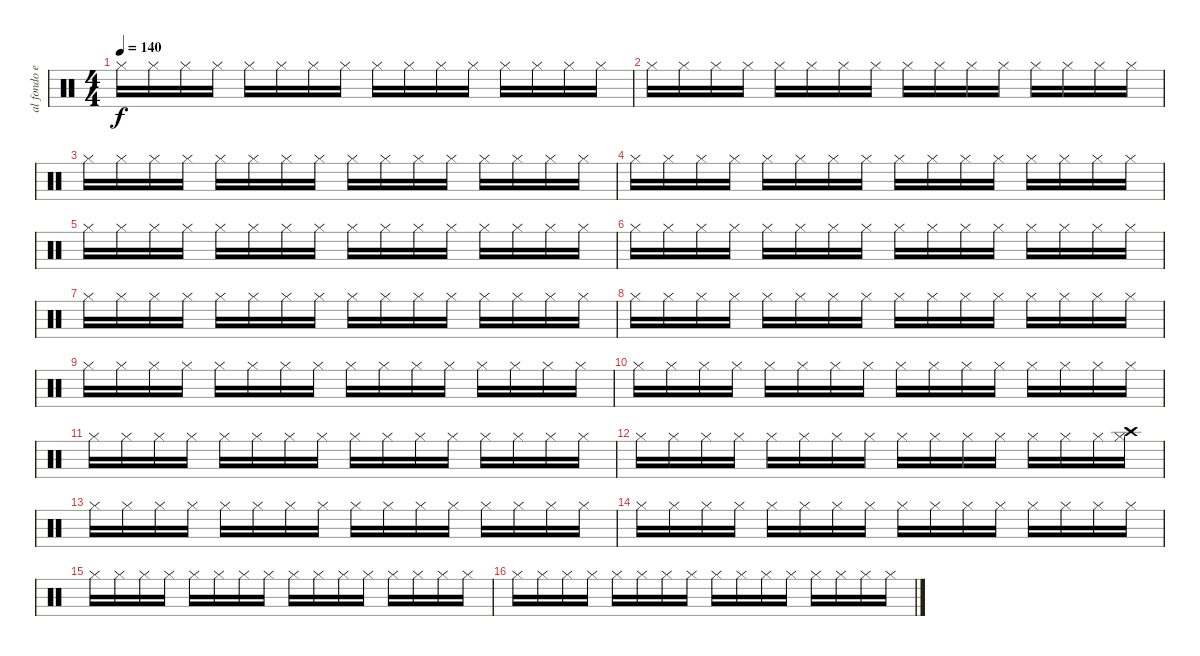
\track ("al fondo en la bateria Mr Pedro Andreu" "al fondo e") {instrument percussion}
\staff {score}
\articulation defaults
\ts (4 4)
\tempo 140
\clef neutral
\ks c "Hi-Hat (closed)".16{dy f} "Hi-Hat (closed)".16 "Hi-Hat (closed)".16 "Hi-Hat (closed)".16 "Hi-Hat (closed)".16 "Hi-Hat (closed)".16 "Hi-Hat (closed)".16 "Hi-Hat (closed)".16 "Hi-Hat (closed)".16 "Hi-Hat (closed)".16 "Hi-Hat (closed)".16 "Hi-Hat (closed)".16 "Hi-Hat (closed)".16 "Hi-Hat (closed)".16 "Hi-Hat (closed)".16 "Hi-Hat (closed)".16
|
"Hi-Hat (closed)".16 "Hi-Hat (closed)".16 "Hi-Hat (closed)".16 "Hi-Hat (closed)".16 "Hi-Hat (closed)".16 "Hi-Hat (closed)".16 "Hi-Hat (closed)".16 "Hi-Hat (closed)".16 "Hi-Hat (closed)".16 "Hi-Hat (closed)".16 "Hi-Hat (closed)".16 "Hi-Hat (closed)".16 "Hi-Hat (closed)".16 "Hi-Hat (closed)".16 "Hi-Hat (closed)".16 "Hi-Hat (closed)".16 |
"Hi-Hat (closed)".16 "Hi-Hat (closed)".16 "Hi-Hat (closed)".16 "Hi-Hat (closed)".16 "Hi-Hat (closed)".16 "Hi-Hat (closed)".16 "Hi-Hat (closed)".16 "Hi-Hat (closed)".16 "Hi-Hat (closed)".16 "Hi-Hat (closed)".16 "Hi-Hat (closed)".16 "Hi-Hat (closed)".16 "Hi-Hat (closed)".16 "Hi-Hat (closed)".16 "Hi-Hat (closed)".16 "Hi-Hat (closed)".16 |
"Hi-Hat (closed)".16 "Hi-Hat (closed)".16 "Hi-Hat (closed)".16 "Hi-Hat (closed)".16 "Hi-Hat (closed)".16 "Hi-Hat (closed)".16 "Hi-Hat (closed)".16 "Hi-Hat (closed)".16 "Hi-Hat (closed)".16 "Hi-Hat (closed)".16 "Hi-Hat (closed)".16 "Hi-Hat (closed)".16 "Hi-Hat (closed)".16 "Hi-Hat (closed)".16 "Hi-Hat (closed)".16 "Hi-Hat (closed)".16 |
"Hi-Hat (closed)".16 "Hi-Hat (closed)".16 "Hi-Hat (closed)".16 "Hi-Hat (closed)".16 "Hi-Hat (closed)".16 "Hi-Hat (closed)".16 "Hi-Hat (closed)".16 "Hi-Hat (closed)".16 "Hi-Hat (closed)".16 "Hi-Hat (closed)".16 "Hi-Hat (closed)".16 "Hi-Hat (closed)".16 "Hi-Hat (closed)".16 "Hi-Hat (closed)".16 "Hi-Hat (closed)".16 "Hi-Hat (closed)".16 |
"Hi-Hat (closed)".16 "Hi-Hat (closed)".16 "Hi-Hat (closed)".16 "Hi-Hat (closed)".16 "Hi-Hat (closed)".16 "Hi-Hat (closed)".16 "Hi-Hat (closed)".16 "Hi-Hat (closed)".16 "Hi-Hat (closed)".16 "Hi-Hat (closed)".16 "Hi-Hat (closed)".16 "Hi-Hat (closed)".16 "Hi-Hat (closed)".16 "Hi-Hat (closed)".16 "Hi-Hat (closed)".16 "Hi-Hat (closed)".16 |
"Hi-Hat (closed)".16 "Hi-Hat (closed)".16 "Hi-Hat (closed)".16 "Hi-Hat (closed)".16 "Hi-Hat (closed)".16 "Hi-Hat (closed)".16 "Hi-Hat (closed)".16 "Hi-Hat (closed)".16 "Hi-Hat (closed)".16 "Hi-Hat (closed)".16 "Hi-Hat (closed)".16 "Hi-Hat (closed)".16 "Hi-Hat (closed)".16 "Hi-Hat (closed)".16 "Hi-Hat (closed)".16 "Hi-Hat (closed)".16 |
"Hi-Hat (closed)".16 "Hi-Hat (closed)".16 "Hi-Hat (closed)".16 "Hi-Hat (closed)".16 "Hi-Hat (closed)".16 "Hi-Hat (closed)".16 "Hi-Hat (closed)".16 "Hi-Hat (closed)".16 "Hi-Hat (closed)".16 "Hi-Hat (closed)".16 "Hi-Hat (closed)".16 "Hi-Hat (closed)".16 "Hi-Hat (closed)".16 "Hi-Hat (closed)".16 "Hi-Hat (closed)".16 "Hi-Hat (closed)".16 |
"Hi-Hat (closed)".16 "Hi-Hat (closed)".16 "Hi-Hat (closed)".16 "Hi-Hat (closed)".16 "Hi-Hat (closed)".16 "Hi-Hat (closed)".16 "Hi-Hat (closed)".16 "Hi-Hat (closed)".16 "Hi-Hat (closed)".16 "Hi-Hat (closed)".16 "Hi-Hat (closed)".16 "Hi-Hat (closed)".16 "Hi-Hat (closed)".16 "Hi-Hat (closed)".16 "Hi-Hat (closed)".16 "Hi-Hat (closed)".16 |
"Hi-Hat (closed)".16 "Hi-Hat (closed)".16 "Hi-Hat (closed)".16 "Hi-Hat (closed)".16 "Hi-Hat (closed)".16 "Hi-Hat (closed)".16 "Hi-Hat (closed)".16 "Hi-Hat (closed)".16 "Hi-Hat (closed)".16 "Hi-Hat (closed)".16 "Hi-Hat (closed)".16 "Hi-Hat (closed)".16 "Hi-Hat (closed)".16 "Hi-Hat (closed)".16 "Hi-Hat (closed)".16 "Hi-Hat (closed)".16 |
"Hi-Hat (closed)".16 "Hi-Hat (closed)".16 "Hi-Hat (closed)".16 "Hi-Hat (closed)".16 "Hi-Hat (closed)".16 "Hi-Hat (closed)".16 "Hi-Hat (closed)".16 "Hi-Hat (closed)".16 "Hi-Hat (closed)".16 "Hi-Hat (closed)".16 "Hi-Hat (closed)".16 "Hi-Hat (closed)".16 "Hi-Hat (closed)".16 "Hi-Hat (closed)".16 "Hi-Hat (closed)".16 "Hi-Hat (closed)".16 |
"Hi-Hat (closed)".16 "Hi-Hat (closed)".16 "Hi-Hat (closed)".16 "Hi-Hat (closed)".16 "Hi-Hat (closed)".16 "Hi-Hat (closed)".16 "Hi-Hat (closed)".16 "Hi-Hat (closed)".16 "Hi-Hat (closed)".16 "Hi-Hat (closed)".16 "Hi-Hat (closed)".16 "Hi-Hat (closed)".16 "Hi-Hat (closed)".16 "Hi-Hat (closed)".16 "Hi-Hat (closed)".16 ("Hi-Hat (closed)" "Crash high (hit)").16 |
"Hi-Hat (closed)".16 "Hi-Hat (closed)".16 "Hi-Hat (closed)".16 "Hi-Hat (closed)".16 "Hi-Hat (closed)".16 "Hi-Hat (closed)".16 "Hi-Hat (closed)".16 "Hi-Hat (closed)".16 "Hi-Hat (closed)".16 "Hi-Hat (closed)".16 "Hi-Hat (closed)".16 "Hi-Hat (closed)".16 "Hi-Hat (closed)".16 "Hi-Hat (closed)".16 "Hi-Hat (closed)".16 "Hi-Hat (closed)".16 |
"Hi-Hat (closed)".16 "Hi-Hat (closed)".16 "Hi-Hat (closed)".16 "Hi-Hat (closed)".16 "Hi-Hat (closed)".16 "Hi-Hat (closed)".16 "Hi-Hat (closed)".16 "Hi-Hat (closed)".16 "Hi-Hat (closed)".16 "Hi-Hat (closed)".16 "Hi-Hat (closed)".16 "Hi-Hat (closed)".16 "Hi-Hat (closed)".16 "Hi-Hat (closed)".16 "Hi-Hat (closed)".16 "Hi-Hat (closed)".16 |
"Hi-Hat (closed)".16 "Hi-Hat (closed)".16 "Hi-Hat (closed)".16 "Hi-Hat (closed)".16 "Hi-Hat (closed)".16 "Hi-Hat (closed)".16 "Hi-Hat (closed)".16 "Hi-Hat (closed)".16 "Hi-Hat (closed)".16 "Hi-Hat (closed)".16 "Hi-Hat (closed)".16 "Hi-Hat (closed)".16 "Hi-Hat (closed)".16 "Hi-Hat (closed)".16 "Hi-Hat (closed)".16 "Hi-Hat (closed)".16 |
"Hi-Hat (closed)".16 "Hi-Hat (closed)".16 "Hi-Hat (closed)".16 "Hi-Hat (closed)".16 "Hi-Hat (closed)".16 "Hi-Hat (closed)".16 "Hi-Hat (closed)".16 "Hi-Hat (closed)".16 "Hi-Hat (closed)".16 "Hi-Hat (closed)".16 "Hi-Hat (closed)".16 "Hi-Hat (closed)".16 "Hi-Hat (closed)".16 "Hi-Hat (closed)".16 "Hi-Hat (closed)".16 "Hi-Hat (closed)".16
